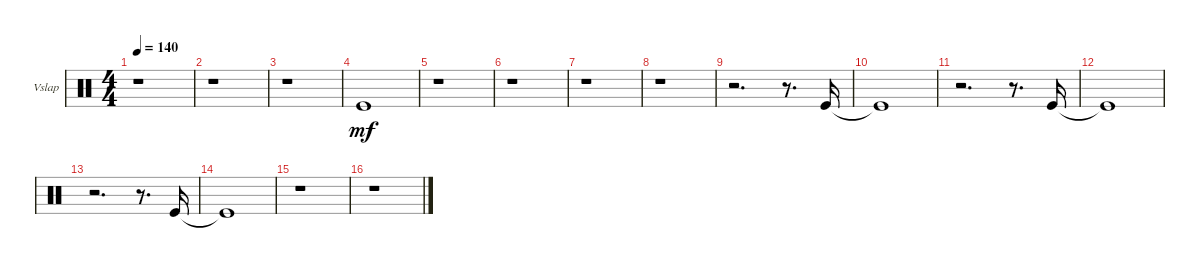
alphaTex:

\defaultSystemsLayout 4
\bracketExtendMode groupsimilarinstruments
\firstSystemTrackNameOrientation horizontal
\otherSystemsTrackNameOrientation horizontal
\track ("Vibraslap" "Vslap") {instrument percussion}
\staff {score}
\articulation defaults
\ts (4 4)
\tempo 140
\clef neutral
\scale
0.25
\ks c
r.1{dy mf} |
\scale
0.25 r.1 |
\scale
0.25 r.1 |
\scale
0.25 "Kick (hit)".1 |
\scale
0.25 r.1 |
\scale
0.25 r.1 |
\scale
0.25 r.1 |
\scale
0.25 r.1 |
\scale
0.327381 r.2{d} r.8{d} "Kick (hit)".16 |
\scale
0.172619 "Kick (hit)"{t}.1 |
\scale
0.327381 r.2{d} r.8{d} "Kick (hit)".16 |
\scale
0.172619 "Kick (hit)"{t}.1 |
\scale
0.387324 r.2{d} r.8{d} "Kick (hit)".16 |
\scale
0.204225 "Kick (hit)"{t}.1 |
\scale
0.204225 r.1 |
\scale
0.204225 r.1
